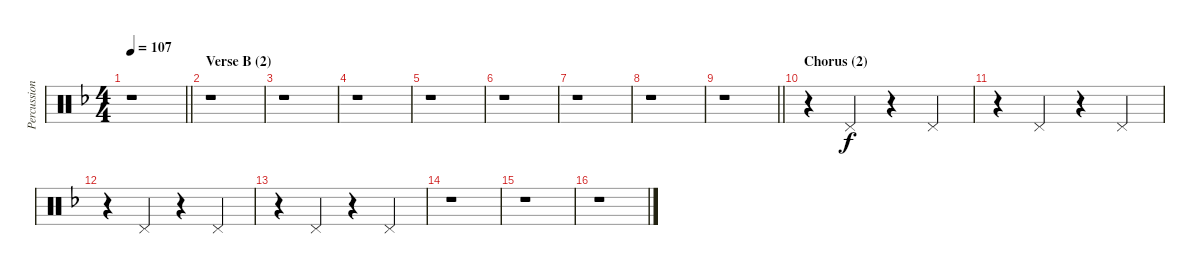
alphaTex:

\track ("Percussion" "Percussion") {instrument percussion}
\staff {score}
\articulation defaults
\ts (4 4)
\tempo 107
\clef neutral
\barLineRight lightlight
\ks dminor
r.1{dy f} |
\section ("" "Verse B (2)")
r.1 |
r.1 |
r.1 |
r.1 |
r.1 |
r.1 |
r.1 |
\barLineRight lightlight
r.1 |
\section ("" "Chorus (2)")
r.4 "Pedal Hi-Hat (hit)".4 r.4 "Pedal Hi-Hat (hit)".4 |
r.4 "Pedal Hi-Hat (hit)".4 r.4 "Pedal Hi-Hat (hit)".4 |
r.4 "Pedal Hi-Hat (hit)".4 r.4 "Pedal Hi-Hat (hit)".4 |
r.4 "Pedal Hi-Hat (hit)".4 r.4 "Pedal Hi-Hat (hit)".4 |
r.1 |
r.1 |
r.1
